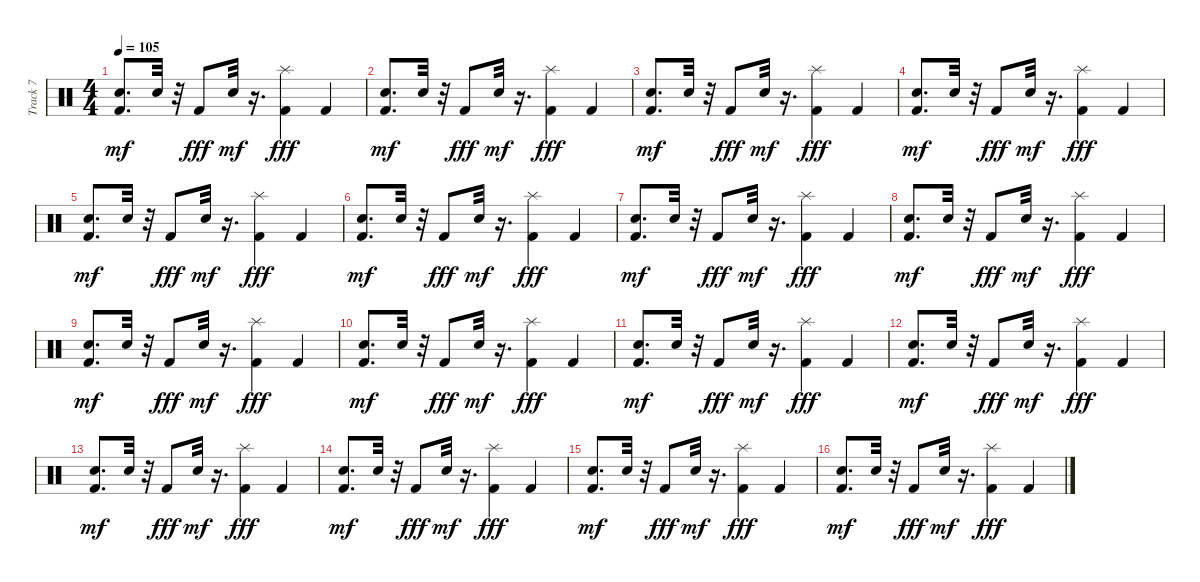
\track ("Track 7" "Track 7") {instrument percussion}
\staff {score}
\articulation defaults
\ts (4 4)
\tempo 105
\clef neutral
\ks c
("Kick (hit) 2" "Snare (hit) 2").8{d dy mf} "Snare (hit) 2".32 r.32 "Kick (hit) 2".8{dy fff} "Snare (hit) 2".32{dy mf} r.16{d} ("Kick (hit) 2" "Splash (hit)").4{dy fff} "Kick (hit) 2".4 |
("Kick (hit) 2" "Snare (hit) 2").8{d dy mf} "Snare (hit) 2".32 r.32 "Kick (hit) 2".8{dy fff} "Snare (hit) 2".32{dy mf} r.16{d} ("Kick (hit) 2" "Splash (hit)").4{dy fff} "Kick (hit) 2".4 |
("Kick (hit) 2" "Snare (hit) 2").8{d dy mf} "Snare (hit) 2".32 r.32 "Kick (hit) 2".8{dy fff} "Snare (hit) 2".32{dy mf} r.16{d} ("Kick (hit) 2" "Splash (hit)").4{dy fff} "Kick (hit) 2".4 |
("Kick (hit) 2" "Snare (hit) 2").8{d dy mf} "Snare (hit) 2".32 r.32 "Kick (hit) 2".8{dy fff} "Snare (hit) 2".32{dy mf} r.16{d} ("Kick (hit) 2" "Splash (hit)").4{dy fff} "Kick (hit) 2".4 |
("Kick (hit) 2" "Snare (hit) 2").8{d dy mf} "Snare (hit) 2".32 r.32 "Kick (hit) 2".8{dy fff} "Snare (hit) 2".32{dy mf} r.16{d} ("Kick (hit) 2" "Splash (hit)").4{dy fff} "Kick (hit) 2".4 |
("Kick (hit) 2" "Snare (hit) 2").8{d dy mf} "Snare (hit) 2".32 r.32 "Kick (hit) 2".8{dy fff} "Snare (hit) 2".32{dy mf} r.16{d} ("Kick (hit) 2" "Splash (hit)").4{dy fff} "Kick (hit) 2".4 |
("Kick (hit) 2" "Snare (hit) 2").8{d dy mf} "Snare (hit) 2".32 r.32 "Kick (hit) 2".8{dy fff} "Snare (hit) 2".32{dy mf} r.16{d} ("Kick (hit) 2" "Splash (hit)").4{dy fff} "Kick (hit) 2".4 |
("Kick (hit) 2" "Snare (hit) 2").8{d dy mf} "Snare (hit) 2".32 r.32 "Kick (hit) 2".8{dy fff} "Snare (hit) 2".32{dy mf} r.16{d} ("Kick (hit) 2" "Splash (hit)").4{dy fff} "Kick (hit) 2".4 |
("Kick (hit) 2" "Snare (hit) 2").8{d dy mf} "Snare (hit) 2".32 r.32 "Kick (hit) 2".8{dy fff} "Snare (hit) 2".32{dy mf} r.16{d} ("Kick (hit) 2" "Splash (hit)").4{dy fff} "Kick (hit) 2".4 |
("Kick (hit) 2" "Snare (hit) 2").8{d dy mf} "Snare (hit) 2".32 r.32 "Kick (hit) 2".8{dy fff} "Snare (hit) 2".32{dy mf} r.16{d} ("Kick (hit) 2" "Splash (hit)").4{dy fff} "Kick (hit) 2".4 |
("Kick (hit) 2" "Snare (hit) 2").8{d dy mf} "Snare (hit) 2".32 r.32 "Kick (hit) 2".8{dy fff} "Snare (hit) 2".32{dy mf} r.16{d} ("Kick (hit) 2" "Splash (hit)").4{dy fff} "Kick (hit) 2".4 |
("Kick (hit) 2" "Snare (hit) 2").8{d dy mf} "Snare (hit) 2".32 r.32 "Kick (hit) 2".8{dy fff} "Snare (hit) 2".32{dy mf} r.16{d} ("Kick (hit) 2" "Splash (hit)").4{dy fff} "Kick (hit) 2".4 |
("Kick (hit) 2" "Snare (hit) 2").8{d dy mf} "Snare (hit) 2".32 r.32 "Kick (hit) 2".8{dy fff} "Snare (hit) 2".32{dy mf} r.16{d} ("Kick (hit) 2" "Splash (hit)").4{dy fff} "Kick (hit) 2".4 |
("Kick (hit) 2" "Snare (hit) 2").8{d dy mf} "Snare (hit) 2".32 r.32 "Kick (hit) 2".8{dy fff} "Snare (hit) 2".32{dy mf} r.16{d} ("Kick (hit) 2" "Splash (hit)").4{dy fff} "Kick (hit) 2".4 |
("Kick (hit) 2" "Snare (hit) 2").8{d dy mf} "Snare (hit) 2".32 r.32 "Kick (hit) 2".8{dy fff} "Snare (hit) 2".32{dy mf} r.16{d} ("Kick (hit) 2" "Splash (hit)").4{dy fff} "Kick (hit) 2".4 |
("Kick (hit) 2" "Snare (hit) 2").8{d dy mf} "Snare (hit) 2".32 r.32 "Kick (hit) 2".8{dy fff} "Snare (hit) 2".32{dy mf} r.16{d} ("Kick (hit) 2" "Splash (hit)").4{dy fff} "Kick (hit) 2".4
